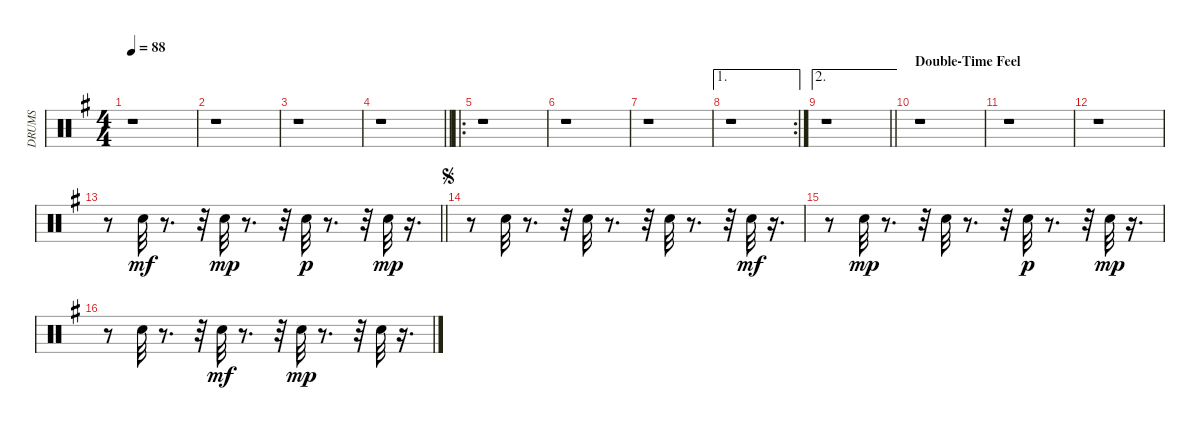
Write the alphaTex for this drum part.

\track ("DRUMS" "DRUMS") {instrument percussion}
\staff {score}
\articulation defaults
\ts (4 4)
\tempo 88
\clef neutral
\ks g
r.1{dy mf} |
r.1 |
r.1 |
\barLineRight lightlight
r.1 |
\ro
r.1 |
r.1 |
r.1 |
\ae 1
\rc 2
r.1 |
\ae 2
\barLineRight lightlight
r.1 |
\section ("" "Double-Time Feel")
r.1 |
r.1 |
r.1 |
\barLineRight lightlight
r.8 "Snare (hit) 2".32 r.8{d} r.32 "Snare (hit) 2".32{dy mp} r.8{d} r.32 "Snare (hit) 2".32{dy p} r.8{d} r.32 "Snare (hit) 2".32{dy mp} r.16{d} |
\jump segno
r.8 "Snare (hit) 2".32 r.8{d} r.32 "Snare (hit) 2".32 r.8{d} r.32 "Snare (hit) 2".32 r.8{d} r.32 "Snare (hit) 2".32{dy mf} r.16{d} |
r.8 "Snare (hit) 2".32{dy mp} r.8{d} r.32 "Snare (hit) 2".32 r.8{d} r.32 "Snare (hit) 2".32{dy p} r.8{d} r.32 "Snare (hit) 2".32{dy mp} r.16{d} |
r.8 "Snare (hit) 2".32 r.8{d} r.32 "Snare (hit) 2".32{dy mf} r.8{d} r.32 "Snare (hit) 2".32{dy mp} r.8{d} r.32 "Snare (hit) 2".32 r.16{d}
